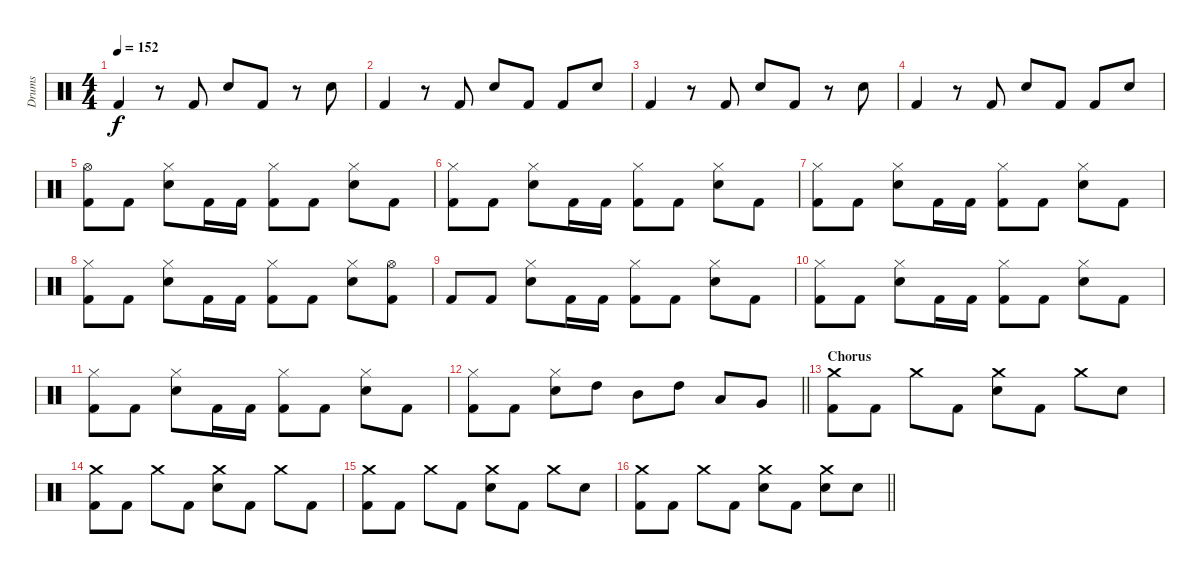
\track ("Drums" "Drums") {instrument percussion}
\staff {score}
\articulation defaults
\ts (4 4)
\tempo 152
\clef neutral
\ks c "Kick (hit) 2".4{dy f}
r.8 "Kick (hit) 2".8 "Electric Snare (hit)".8 "Kick (hit) 2".8 r.8 "Electric Snare (hit)".8 |
"Kick (hit) 2".4 r.8 "Kick (hit) 2".8 "Electric Snare (hit)".8 "Kick (hit) 2".8 "Kick (hit) 2".8 "Electric Snare (hit)".8 |
"Kick (hit) 2".4 r.8 "Kick (hit) 2".8 "Electric Snare (hit)".8 "Kick (hit) 2".8 r.8 "Electric Snare (hit)".8 |
"Kick (hit) 2".4 r.8 "Kick (hit) 2".8 "Electric Snare (hit)".8 "Kick (hit) 2".8 "Kick (hit) 2".8 "Electric Snare (hit)".8 |
("Hi-Hat (open)" "Kick (hit) 2").8 "Kick (hit) 2".8 ("Hi-Hat (closed)" "Electric Snare (hit)").8 "Kick (hit) 2".16 "Kick (hit) 2".16 ("Hi-Hat (closed)" "Kick (hit) 2").8 "Kick (hit) 2".8 ("Hi-Hat (closed)" "Electric Snare (hit)").8 "Kick (hit) 2".8 |
("Hi-Hat (closed)" "Kick (hit) 2").8 "Kick (hit) 2".8 ("Hi-Hat (closed)" "Electric Snare (hit)").8 "Kick (hit) 2".16 "Kick (hit) 2".16 ("Hi-Hat (closed)" "Kick (hit) 2").8 "Kick (hit) 2".8 ("Hi-Hat (closed)" "Electric Snare (hit)").8 "Kick (hit) 2".8 |
("Hi-Hat (closed)" "Kick (hit) 2").8 "Kick (hit) 2".8 ("Hi-Hat (closed)" "Electric Snare (hit)").8 "Kick (hit) 2".16 "Kick (hit) 2".16 ("Hi-Hat (closed)" "Kick (hit) 2").8 "Kick (hit) 2".8 ("Hi-Hat (closed)" "Electric Snare (hit)").8 "Kick (hit) 2".8 |
("Hi-Hat (closed)" "Kick (hit) 2").8 "Kick (hit) 2".8 ("Hi-Hat (closed)" "Electric Snare (hit)").8 "Kick (hit) 2".16 "Kick (hit) 2".16 ("Hi-Hat (closed)" "Kick (hit) 2").8 "Kick (hit) 2".8 ("Hi-Hat (closed)" "Electric Snare (hit)").8 ("Hi-Hat (open)" "Kick (hit) 2").8 |
"Kick (hit) 2".8 "Kick (hit) 2".8 ("Hi-Hat (closed)" "Electric Snare (hit)").8 "Kick (hit) 2".16 "Kick (hit) 2".16 ("Hi-Hat (closed)" "Kick (hit) 2").8 "Kick (hit) 2".8 ("Hi-Hat (closed)" "Electric Snare (hit)").8 "Kick (hit) 2".8 |
("Hi-Hat (closed)" "Kick (hit) 2").8 "Kick (hit) 2".8 ("Hi-Hat (closed)" "Electric Snare (hit)").8 "Kick (hit) 2".16 "Kick (hit) 2".16 ("Hi-Hat (closed)" "Kick (hit) 2").8 "Kick (hit) 2".8 ("Hi-Hat (closed)" "Electric Snare (hit)").8 "Kick (hit) 2".8 |
("Hi-Hat (closed)" "Kick (hit) 2").8 "Kick (hit) 2".8 ("Hi-Hat (closed)" "Electric Snare (hit)").8 "Kick (hit) 2".16 "Kick (hit) 2".16 ("Hi-Hat (closed)" "Kick (hit) 2").8 "Kick (hit) 2".8 ("Hi-Hat (closed)" "Electric Snare (hit)").8 "Kick (hit) 2".8 |
\barLineRight lightlight
("Hi-Hat (closed)" "Kick (hit) 2").8 "Kick (hit) 2".8 ("Hi-Hat (closed)" "Electric Snare (hit)").8 "High Tom (hit)".8 "Mid Tom (hit)".8 "High Tom (hit)".8 "Low Tom (hit)".8 "Very Low Tom (hit)".8 |
\section ("" "Chorus")
("Crash medium (hit)" "Kick (hit) 2").8 "Kick (hit) 2".8 "Crash medium (hit)".8 "Kick (hit) 2".8 ("Crash medium (hit)" "Electric Snare (hit)").8 "Kick (hit) 2".8 "Crash medium (hit)".8 "Electric Snare (hit)".8 |
("Crash medium (hit)" "Kick (hit) 2").8 "Kick (hit) 2".8 "Crash medium (hit)".8 "Kick (hit) 2".8 ("Crash medium (hit)" "Electric Snare (hit)").8 "Kick (hit) 2".8 "Crash medium (hit)".8 "Kick (hit) 2".8 |
("Crash medium (hit)" "Kick (hit) 2").8 "Kick (hit) 2".8 "Crash medium (hit)".8 "Kick (hit) 2".8 ("Crash medium (hit)" "Electric Snare (hit)").8 "Kick (hit) 2".8 "Crash medium (hit)".8 "Electric Snare (hit)".8 |
\barLineRight lightlight
("Crash medium (hit)" "Kick (hit) 2").8 "Kick (hit) 2".8 "Crash medium (hit)".8 "Kick (hit) 2".8 ("Crash medium (hit)" "Electric Snare (hit)").8 "Kick (hit) 2".8 ("Crash medium (hit)" "Electric Snare (hit)").8 "Electric Snare (hit)".8
